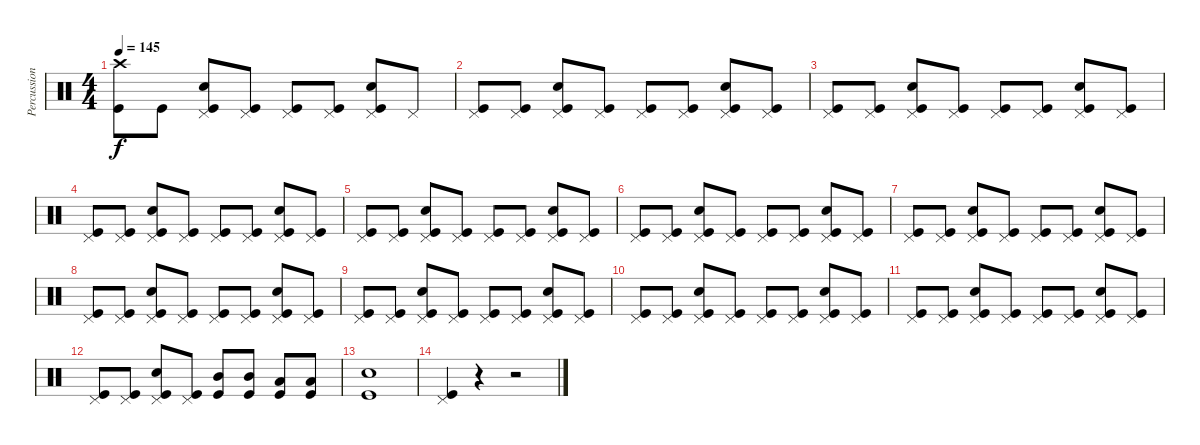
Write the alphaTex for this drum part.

\track ("Percussion" "Percussion") {instrument percussion}
\staff {score}
\articulation defaults
\ts (4 4)
\tempo 145
\clef neutral
\ks c
("Crash high (hit)" "Kick (hit)").8{dy f} "Kick (hit)".8 ("Pedal Hi-Hat (hit)" "Snare (hit) 2" "Kick (hit)").8 ("Pedal Hi-Hat (hit)" "Kick (hit)").8 ("Pedal Hi-Hat (hit)" "Kick (hit)").8 ("Pedal Hi-Hat (hit)" "Kick (hit)").8 ("Pedal Hi-Hat (hit)" "Snare (hit) 2" "Kick (hit)").8 "Pedal Hi-Hat (hit)".8 |
("Pedal Hi-Hat (hit)" "Kick (hit)").8 ("Pedal Hi-Hat (hit)" "Kick (hit)").8 ("Pedal Hi-Hat (hit)" "Snare (hit) 2" "Kick (hit)").8 ("Pedal Hi-Hat (hit)" "Kick (hit)").8 ("Pedal Hi-Hat (hit)" "Kick (hit)").8 ("Pedal Hi-Hat (hit)" "Kick (hit)").8 ("Pedal Hi-Hat (hit)" "Snare (hit) 2" "Kick (hit)").8 ("Pedal Hi-Hat (hit)" "Kick (hit)").8 |
("Pedal Hi-Hat (hit)" "Kick (hit)").8 ("Pedal Hi-Hat (hit)" "Kick (hit)").8 ("Pedal Hi-Hat (hit)" "Snare (hit) 2" "Kick (hit)").8 ("Pedal Hi-Hat (hit)" "Kick (hit)").8 ("Pedal Hi-Hat (hit)" "Kick (hit)").8 ("Pedal Hi-Hat (hit)" "Kick (hit)").8 ("Pedal Hi-Hat (hit)" "Snare (hit) 2" "Kick (hit)").8 ("Pedal Hi-Hat (hit)" "Kick (hit)").8 |
("Pedal Hi-Hat (hit)" "Kick (hit)").8 ("Pedal Hi-Hat (hit)" "Kick (hit)").8 ("Pedal Hi-Hat (hit)" "Snare (hit) 2" "Kick (hit)").8 ("Pedal Hi-Hat (hit)" "Kick (hit)").8 ("Pedal Hi-Hat (hit)" "Kick (hit)").8 ("Pedal Hi-Hat (hit)" "Kick (hit)").8 ("Pedal Hi-Hat (hit)" "Snare (hit) 2" "Kick (hit)").8 ("Pedal Hi-Hat (hit)" "Kick (hit)").8 |
("Pedal Hi-Hat (hit)" "Kick (hit)").8 ("Pedal Hi-Hat (hit)" "Kick (hit)").8 ("Pedal Hi-Hat (hit)" "Snare (hit) 2" "Kick (hit)").8 ("Pedal Hi-Hat (hit)" "Kick (hit)").8 ("Pedal Hi-Hat (hit)" "Kick (hit)").8 ("Pedal Hi-Hat (hit)" "Kick (hit)").8 ("Pedal Hi-Hat (hit)" "Snare (hit) 2" "Kick (hit)").8 ("Pedal Hi-Hat (hit)" "Kick (hit)").8 |
("Pedal Hi-Hat (hit)" "Kick (hit)").8 ("Pedal Hi-Hat (hit)" "Kick (hit)").8 ("Pedal Hi-Hat (hit)" "Snare (hit) 2" "Kick (hit)").8 ("Pedal Hi-Hat (hit)" "Kick (hit)").8 ("Pedal Hi-Hat (hit)" "Kick (hit)").8 ("Pedal Hi-Hat (hit)" "Kick (hit)").8 ("Pedal Hi-Hat (hit)" "Snare (hit) 2" "Kick (hit)").8 ("Pedal Hi-Hat (hit)" "Kick (hit)").8 |
("Pedal Hi-Hat (hit)" "Kick (hit)").8 ("Pedal Hi-Hat (hit)" "Kick (hit)").8 ("Pedal Hi-Hat (hit)" "Snare (hit) 2" "Kick (hit)").8 ("Pedal Hi-Hat (hit)" "Kick (hit)").8 ("Pedal Hi-Hat (hit)" "Kick (hit)").8 ("Pedal Hi-Hat (hit)" "Kick (hit)").8 ("Pedal Hi-Hat (hit)" "Snare (hit) 2" "Kick (hit)").8 ("Pedal Hi-Hat (hit)" "Kick (hit)").8 |
("Pedal Hi-Hat (hit)" "Kick (hit)").8 ("Pedal Hi-Hat (hit)" "Kick (hit)").8 ("Pedal Hi-Hat (hit)" "Snare (hit) 2" "Kick (hit)").8 ("Pedal Hi-Hat (hit)" "Kick (hit)").8 ("Pedal Hi-Hat (hit)" "Kick (hit)").8 ("Pedal Hi-Hat (hit)" "Kick (hit)").8 ("Pedal Hi-Hat (hit)" "Snare (hit) 2" "Kick (hit)").8 ("Pedal Hi-Hat (hit)" "Kick (hit)").8 |
("Pedal Hi-Hat (hit)" "Kick (hit)").8 ("Pedal Hi-Hat (hit)" "Kick (hit)").8 ("Pedal Hi-Hat (hit)" "Snare (hit) 2" "Kick (hit)").8 ("Pedal Hi-Hat (hit)" "Kick (hit)").8 ("Pedal Hi-Hat (hit)" "Kick (hit)").8 ("Pedal Hi-Hat (hit)" "Kick (hit)").8 ("Pedal Hi-Hat (hit)" "Snare (hit) 2" "Kick (hit)").8 ("Pedal Hi-Hat (hit)" "Kick (hit)").8 |
("Pedal Hi-Hat (hit)" "Kick (hit)").8 ("Pedal Hi-Hat (hit)" "Kick (hit)").8 ("Pedal Hi-Hat (hit)" "Snare (hit) 2" "Kick (hit)").8 ("Pedal Hi-Hat (hit)" "Kick (hit)").8 ("Pedal Hi-Hat (hit)" "Kick (hit)").8 ("Pedal Hi-Hat (hit)" "Kick (hit)").8 ("Pedal Hi-Hat (hit)" "Snare (hit) 2" "Kick (hit)").8 ("Pedal Hi-Hat (hit)" "Kick (hit)").8 |
("Pedal Hi-Hat (hit)" "Kick (hit)").8 ("Pedal Hi-Hat (hit)" "Kick (hit)").8 ("Pedal Hi-Hat (hit)" "Snare (hit) 2" "Kick (hit)").8 ("Pedal Hi-Hat (hit)" "Kick (hit)").8 ("Pedal Hi-Hat (hit)" "Kick (hit)").8 ("Pedal Hi-Hat (hit)" "Kick (hit)").8 ("Pedal Hi-Hat (hit)" "Snare (hit) 2" "Kick (hit)").8 ("Pedal Hi-Hat (hit)" "Kick (hit)").8 |
("Pedal Hi-Hat (hit)" "Kick (hit)").8 ("Pedal Hi-Hat (hit)" "Kick (hit)").8 ("Pedal Hi-Hat (hit)" "Snare (hit) 2" "Kick (hit)").8 ("Pedal Hi-Hat (hit)" "Kick (hit)").8 ("Mid Tom (hit)" "Kick (hit)").8 ("Mid Tom (hit)" "Kick (hit)").8 ("Low Tom (hit)" "Kick (hit)").8 ("Low Floor Tom (hit)" "Kick (hit)").8 |
("Snare (hit) 2" "Kick (hit)").1 |
("Pedal Hi-Hat (hit)" "Kick (hit)").4 r.4 r.2
